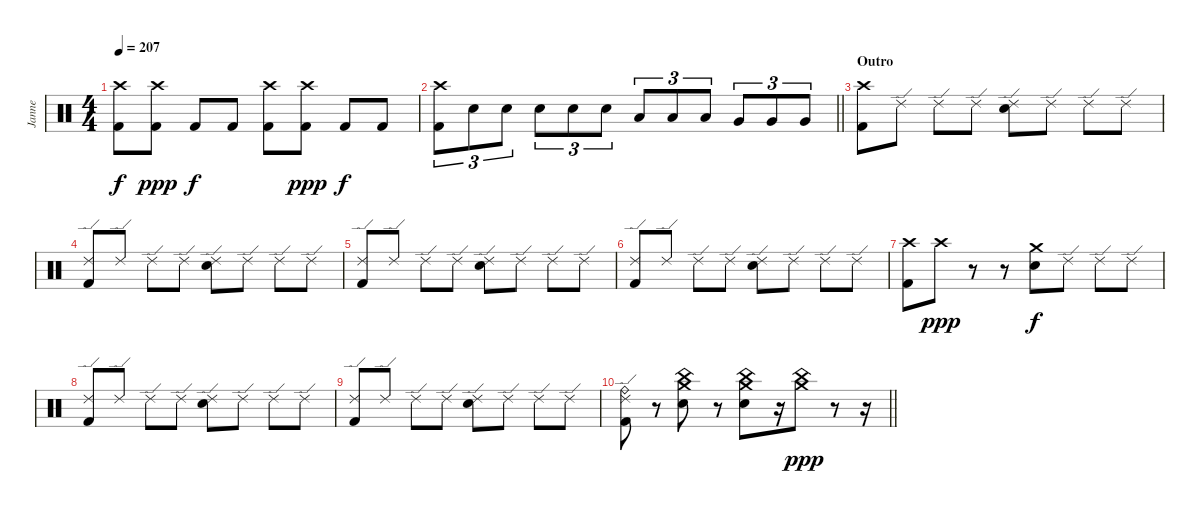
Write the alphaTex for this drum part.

\track ("Janne" "Janne") {instrument percussion}
\staff {score}
\articulation defaults
\ts (4 4)
\tempo 207
\clef neutral
\ks c
("Crash high (hit)" "Kick (hit) 2").8{dy f} ("Crash high (hit)" "Kick (hit) 2").8{dy ppp} "Kick (hit) 2".8{dy f} "Kick (hit) 2".8 ("Crash high (hit)" "Kick (hit) 2").8 ("Crash high (hit)" "Kick (hit) 2").8{dy ppp} "Kick (hit) 2".8{dy f} "Kick (hit) 2".8 |
\barLineRight lightlight
("Crash high (hit)" "Kick (hit) 2").8{tu (3 2)} "Electric Snare (hit)".8{tu (3 2)} "Electric Snare (hit)".8{tu (3 2)} "Electric Snare (hit)".8{tu (3 2)} "Electric Snare (hit)".8{tu (3 2)} "Electric Snare (hit)".8{tu (3 2)} "Low Tom (hit)".8{tu (3 2)} "Low Tom (hit)".8{tu (3 2)} "Low Tom (hit)".8{tu (3 2)} "Very Low Tom (hit)".8{tu (3 2)} "Very Low Tom (hit)".8{tu (3 2)} "Very Low Tom (hit)".8{tu (3 2)} |
\section ("" "Outro")
("Crash high (hit)" "Kick (hit) 2").8 "Ride (edge) 2".8 "Ride (edge) 2".8 "Ride (edge) 2".8 ("Ride (edge) 2" "Electric Snare (hit)").8 "Ride (edge) 2".8 "Ride (edge) 2".8 "Ride (edge) 2".8 |
("Ride (edge) 2" "Kick (hit) 2").8 "Ride (edge) 2".8 "Ride (edge) 2".8 "Ride (edge) 2".8 ("Ride (edge) 2" "Electric Snare (hit)").8 "Ride (edge) 2".8 "Ride (edge) 2".8 "Ride (edge) 2".8 |
("Ride (edge) 2" "Kick (hit) 2").8 "Ride (edge) 2".8 "Ride (edge) 2".8 "Ride (edge) 2".8 ("Ride (edge) 2" "Electric Snare (hit)").8 "Ride (edge) 2".8 "Ride (edge) 2".8 "Ride (edge) 2".8 |
("Ride (edge) 2" "Kick (hit) 2").8 "Ride (edge) 2".8 "Ride (edge) 2".8 "Ride (edge) 2".8 ("Ride (edge) 2" "Electric Snare (hit)").8 "Ride (edge) 2".8 "Ride (edge) 2".8 "Ride (edge) 2".8 |
("Crash high (hit)" "Kick (hit) 2").8 "Crash high (hit)".8{dy ppp} r.8 r.8 ("Crash medium (hit)" "Electric Snare (hit)").8{dy f} "Ride (edge) 2".8 "Ride (edge) 2".8 "Ride (edge) 2".8 |
("Ride (edge) 2" "Kick (hit) 2").8 "Ride (edge) 2".8 "Ride (edge) 2".8 "Ride (edge) 2".8 ("Ride (edge) 2" "Electric Snare (hit)").8 "Ride (edge) 2".8 "Ride (edge) 2".8 "Ride (edge) 2".8 |
("Ride (edge) 2" "Kick (hit) 2").8 "Ride (edge) 2".8 "Ride (edge) 2".8 "Ride (edge) 2".8 ("Ride (edge) 2" "Electric Snare (hit)").8 "Ride (edge) 2".8 "Ride (edge) 2".8 "Ride (edge) 2".8 |
\barLineRight lightlight
("Ride (bell)" "Ride (edge) 2" "Kick (hit) 2").8 r.8 ("Crash medium (hit)" "China (hit)" "Electric Snare (hit)").8 r.8 ("Crash medium (hit)" "China (hit)" "Electric Snare (hit)").8 r.16 ("Crash medium (hit)" "China (hit)").8{dy ppp} r.8 r.16
